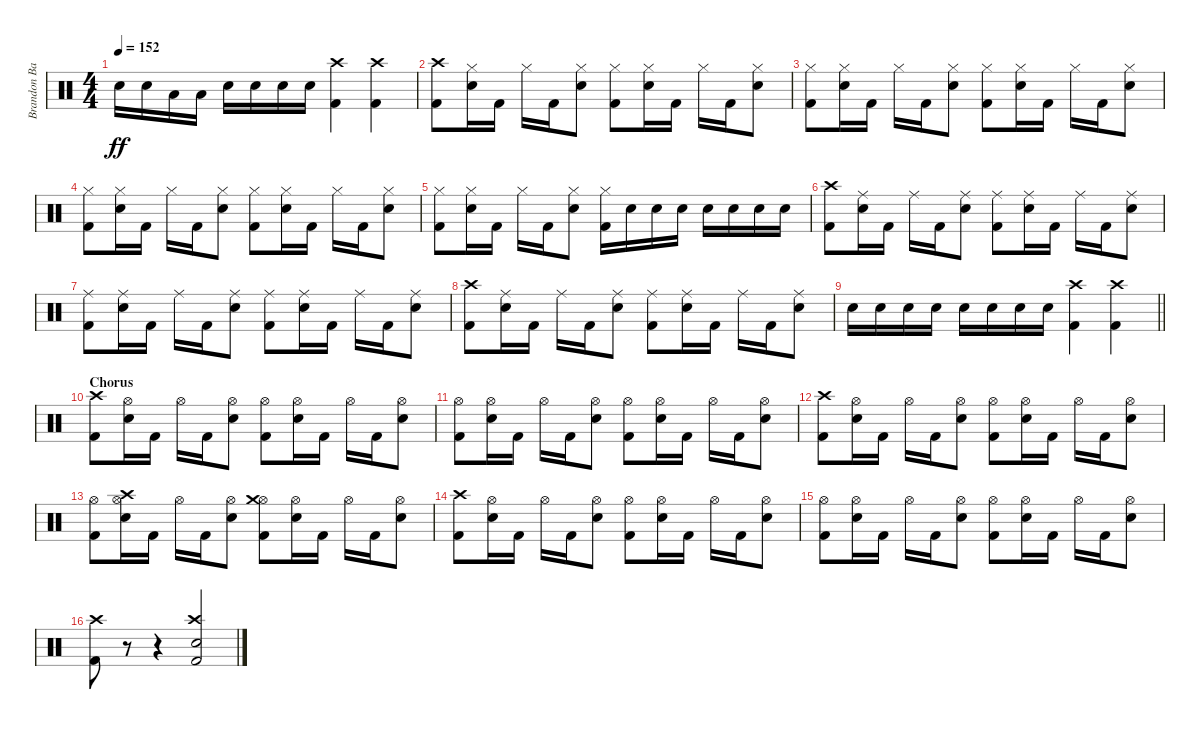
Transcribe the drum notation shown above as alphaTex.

\track ("Brandon Barnes - Drums" "Brandon Ba") {instrument percussion}
\staff {score}
\articulation defaults
\ts (4 4)
\tempo 152
\clef neutral
\ks c "Snare (hit) 2".16{dy ff} "Snare (hit) 2".16 "Low Tom (hit)".16 "Low Tom (hit)".16 "Snare (hit) 2".16 "Snare (hit) 2".16 "Snare (hit) 2".16 "Snare (hit) 2".16
("Crash high (hit)" "Kick (hit) 2").4 ("Crash high (hit)" "Kick (hit) 2").4 |
("Crash high (hit)" "Kick (hit) 2").8 ("Snare (hit) 2" "Hi-Hat (closed)").16 "Kick (hit) 2".16 "Hi-Hat (closed)".16 "Kick (hit) 2".16 ("Snare (hit) 2" "Hi-Hat (closed)").8 ("Hi-Hat (closed)" "Kick (hit) 2").8 ("Snare (hit) 2" "Hi-Hat (closed)").16 "Kick (hit) 2".16 "Hi-Hat (closed)".16 "Kick (hit) 2".16 ("Snare (hit) 2" "Hi-Hat (closed)").8 |
("Hi-Hat (closed)" "Kick (hit) 2").8 ("Snare (hit) 2" "Hi-Hat (closed)").16 "Kick (hit) 2".16 "Hi-Hat (closed)".16 "Kick (hit) 2".16 ("Snare (hit) 2" "Hi-Hat (closed)").8 ("Hi-Hat (closed)" "Kick (hit) 2").8 ("Snare (hit) 2" "Hi-Hat (closed)").16 "Kick (hit) 2".16 "Hi-Hat (closed)".16 "Kick (hit) 2".16 ("Snare (hit) 2" "Hi-Hat (closed)").8 |
("Hi-Hat (closed)" "Kick (hit) 2").8 ("Snare (hit) 2" "Hi-Hat (closed)").16 "Kick (hit) 2".16 "Hi-Hat (closed)".16 "Kick (hit) 2".16 ("Snare (hit) 2" "Hi-Hat (closed)").8 ("Hi-Hat (closed)" "Kick (hit) 2").8 ("Snare (hit) 2" "Hi-Hat (closed)").16 "Kick (hit) 2".16 "Hi-Hat (closed)".16 "Kick (hit) 2".16 ("Snare (hit) 2" "Hi-Hat (closed)").8 |
("Hi-Hat (closed)" "Kick (hit) 2").8 ("Snare (hit) 2" "Hi-Hat (closed)").16 "Kick (hit) 2".16 "Hi-Hat (closed)".16 "Kick (hit) 2".16 ("Snare (hit) 2" "Hi-Hat (closed)").8 ("Hi-Hat (closed)" "Kick (hit) 2").16 "Snare (hit) 2".16 "Snare (hit) 2".16 "Snare (hit) 2".16 "Snare (hit) 2".16 "Snare (hit) 2".16 "Snare (hit) 2".16 "Snare (hit) 2".16 |
("Crash high (hit)" "Kick (hit) 2").8 ("Snare (hit) 2" "Ride (middle)").16 "Kick (hit) 2".16 "Ride (middle)".16 "Kick (hit) 2".16 ("Snare (hit) 2" "Ride (middle)").8 ("Ride (middle)" "Kick (hit) 2").8 ("Snare (hit) 2" "Ride (middle)").16 "Kick (hit) 2".16 "Ride (middle)".16 "Kick (hit) 2".16 ("Snare (hit) 2" "Ride (middle)").8 |
("Ride (middle)" "Kick (hit) 2").8 ("Snare (hit) 2" "Ride (middle)").16 "Kick (hit) 2".16 "Ride (middle)".16 "Kick (hit) 2".16 ("Snare (hit) 2" "Ride (middle)").8 ("Ride (middle)" "Kick (hit) 2").8 ("Snare (hit) 2" "Ride (middle)").16 "Kick (hit) 2".16 "Ride (middle)".16 "Kick (hit) 2".16 ("Snare (hit) 2" "Ride (middle)").8 |
("Crash high (hit)" "Kick (hit) 2").8 ("Snare (hit) 2" "Ride (middle)").16 "Kick (hit) 2".16 "Ride (middle)".16 "Kick (hit) 2".16 ("Snare (hit) 2" "Ride (middle)").8 ("Ride (middle)" "Kick (hit) 2").8 ("Snare (hit) 2" "Ride (middle)").16 "Kick (hit) 2".16 "Ride (middle)".16 "Kick (hit) 2".16 ("Snare (hit) 2" "Ride (middle)").8 |
\barLineRight lightlight "Snare (hit) 2".16 "Snare (hit) 2".16 "Snare (hit) 2".16 "Snare (hit) 2".16 "Snare (hit) 2".16 "Snare (hit) 2".16 "Snare (hit) 2".16 "Snare (hit) 2".16
("Crash high (hit)" "Kick (hit) 2").4 ("Crash high (hit)" "Kick (hit) 2").4 |
\section ("" "Chorus")
("Crash high (hit)" "Kick (hit) 2").8 ("Snare (hit) 2" "Hi-Hat (open)").16 "Kick (hit) 2".16 "Hi-Hat (open)".16 "Kick (hit) 2".16 ("Snare (hit) 2" "Hi-Hat (open)").8 ("Hi-Hat (open)" "Kick (hit) 2").8 ("Snare (hit) 2" "Hi-Hat (open)").16 "Kick (hit) 2".16 "Hi-Hat (open)".16 "Kick (hit) 2".16 ("Snare (hit) 2" "Hi-Hat (open)").8 |
("Hi-Hat (open)" "Kick (hit) 2").8 ("Snare (hit) 2" "Hi-Hat (open)").16 "Kick (hit) 2".16 "Hi-Hat (open)".16 "Kick (hit) 2".16 ("Snare (hit) 2" "Hi-Hat (open)").8 ("Hi-Hat (open)" "Kick (hit) 2").8 ("Snare (hit) 2" "Hi-Hat (open)").16 "Kick (hit) 2".16 "Hi-Hat (open)".16 "Kick (hit) 2".16 ("Snare (hit) 2" "Hi-Hat (open)").8 |
("Crash high (hit)" "Kick (hit) 2").8 ("Snare (hit) 2" "Hi-Hat (open)").16 "Kick (hit) 2".16 "Hi-Hat (open)".16 "Kick (hit) 2".16 ("Snare (hit) 2" "Hi-Hat (open)").8 ("Hi-Hat (open)" "Kick (hit) 2").8 ("Snare (hit) 2" "Hi-Hat (open)").16 "Kick (hit) 2".16 "Hi-Hat (open)".16 "Kick (hit) 2".16 ("Snare (hit) 2" "Hi-Hat (open)").8 |
("Hi-Hat (open)" "Kick (hit) 2").8 ("Snare (hit) 2" "Hi-Hat (open)" "Crash high (hit)").16 "Kick (hit) 2".16 "Hi-Hat (open)".16 "Kick (hit) 2".16 ("Snare (hit) 2" "Hi-Hat (open)").8 ("Hi-Hat (open)" "Kick (hit) 2" "Crash medium (hit)").8 ("Snare (hit) 2" "Hi-Hat (open)").16 "Kick (hit) 2".16 "Hi-Hat (open)".16 "Kick (hit) 2".16 ("Snare (hit) 2" "Hi-Hat (open)").8 |
("Crash high (hit)" "Kick (hit) 2").8 ("Snare (hit) 2" "Hi-Hat (open)").16 "Kick (hit) 2".16 "Hi-Hat (open)".16 "Kick (hit) 2".16 ("Snare (hit) 2" "Hi-Hat (open)").8 ("Hi-Hat (open)" "Kick (hit) 2").8 ("Snare (hit) 2" "Hi-Hat (open)").16 "Kick (hit) 2".16 "Hi-Hat (open)".16 "Kick (hit) 2".16 ("Snare (hit) 2" "Hi-Hat (open)").8 |
("Hi-Hat (open)" "Kick (hit) 2").8 ("Snare (hit) 2" "Hi-Hat (open)").16 "Kick (hit) 2".16 "Hi-Hat (open)".16 "Kick (hit) 2".16 ("Snare (hit) 2" "Hi-Hat (open)").8 ("Hi-Hat (open)" "Kick (hit) 2").8 ("Snare (hit) 2" "Hi-Hat (open)").16 "Kick (hit) 2".16 "Hi-Hat (open)".16 "Kick (hit) 2".16 ("Snare (hit) 2" "Hi-Hat (open)").8 |
("Crash high (hit)" "Kick (hit) 2").8 r.8{volume 0} r.4 ("Crash high (hit)" "Kick (hit) 2" "Snare (hit) 2").2{volume 11}
